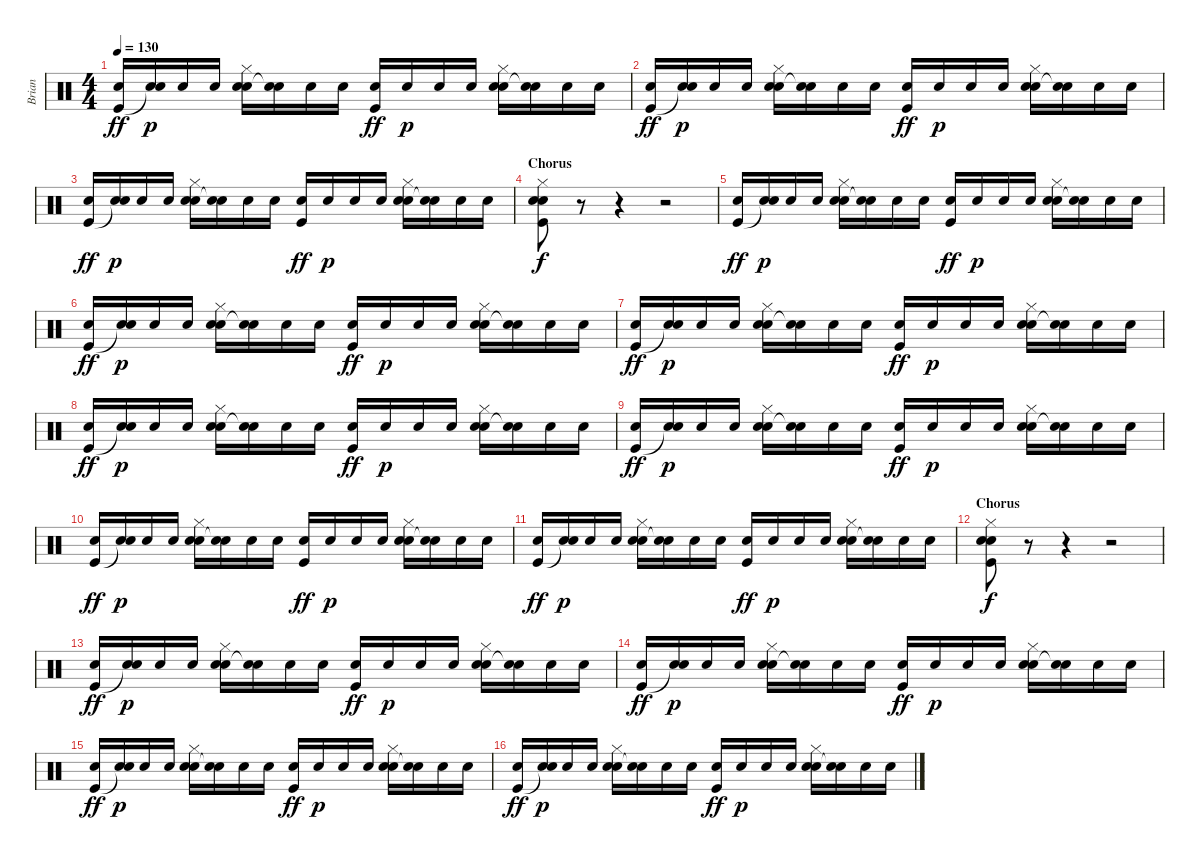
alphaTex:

\track ("Brian" "Brian") {instrument percussion}
\staff {score}
\articulation defaults
\ts (4 4)
\tempo 130
\clef neutral
\ks c
("Snare (hit) 2" "Kick (hit)").16{dy ff} ("Snare (hit) 2" "Snare (hit)"{t}).16{dy p} "Snare (hit) 2".16 "Snare (hit) 2".16 ("Snare (hit) 2" "Hi-Hat (closed)" "Snare (hit) 2").16 ("Snare (hit)"{t} "Snare (hit) 2").16 "Snare (hit) 2".16 "Snare (hit) 2".16 ("Snare (hit) 2" "Kick (hit)").16{dy ff} "Snare (hit) 2".16{dy p} "Snare (hit) 2".16 "Snare (hit) 2".16 ("Snare (hit) 2" "Hi-Hat (closed)" "Snare (hit) 2").16 ("Snare (hit)"{t} "Snare (hit) 2").16 "Snare (hit) 2".16 "Snare (hit) 2".16 |
("Snare (hit) 2" "Kick (hit)").16{dy ff} ("Snare (hit) 2" "Snare (hit)"{t}).16{dy p} "Snare (hit) 2".16 "Snare (hit) 2".16 ("Snare (hit) 2" "Hi-Hat (closed)" "Snare (hit) 2").16 ("Snare (hit)"{t} "Snare (hit) 2").16 "Snare (hit) 2".16 "Snare (hit) 2".16 ("Snare (hit) 2" "Kick (hit)").16{dy ff} "Snare (hit) 2".16{dy p} "Snare (hit) 2".16 "Snare (hit) 2".16 ("Snare (hit) 2" "Hi-Hat (closed)" "Snare (hit) 2").16 ("Snare (hit)"{t} "Snare (hit) 2").16 "Snare (hit) 2".16 "Snare (hit) 2".16 |
("Snare (hit) 2" "Kick (hit)").16{dy ff} ("Snare (hit) 2" "Snare (hit)"{t}).16{dy p} "Snare (hit) 2".16 "Snare (hit) 2".16 ("Snare (hit) 2" "Hi-Hat (closed)" "Snare (hit) 2").16 ("Snare (hit)"{t} "Snare (hit) 2").16 "Snare (hit) 2".16 "Snare (hit) 2".16 ("Snare (hit) 2" "Kick (hit)").16{dy ff} "Snare (hit) 2".16{dy p} "Snare (hit) 2".16 "Snare (hit) 2".16 ("Snare (hit) 2" "Hi-Hat (closed)" "Snare (hit) 2").16 ("Snare (hit)"{t} "Snare (hit) 2").16 "Snare (hit) 2".16 "Snare (hit) 2".16 |
\section ("" "Chorus")
("Snare (hit) 2" "Hi-Hat (closed)" "Snare (hit) 2" "Kick (hit)").8{dy f} r.8 r.4 r.2 |
("Snare (hit) 2" "Kick (hit)").16{dy ff} ("Snare (hit) 2" "Snare (hit)"{t}).16{dy p} "Snare (hit) 2".16 "Snare (hit) 2".16 ("Snare (hit) 2" "Hi-Hat (closed)" "Snare (hit) 2").16 ("Snare (hit)"{t} "Snare (hit) 2").16 "Snare (hit) 2".16 "Snare (hit) 2".16 ("Snare (hit) 2" "Kick (hit)").16{dy ff} "Snare (hit) 2".16{dy p} "Snare (hit) 2".16 "Snare (hit) 2".16 ("Snare (hit) 2" "Hi-Hat (closed)" "Snare (hit) 2").16 ("Snare (hit)"{t} "Snare (hit) 2").16 "Snare (hit) 2".16 "Snare (hit) 2".16 |
("Snare (hit) 2" "Kick (hit)").16{dy ff} ("Snare (hit) 2" "Snare (hit)"{t}).16{dy p} "Snare (hit) 2".16 "Snare (hit) 2".16 ("Snare (hit) 2" "Hi-Hat (closed)" "Snare (hit) 2").16 ("Snare (hit)"{t} "Snare (hit) 2").16 "Snare (hit) 2".16 "Snare (hit) 2".16 ("Snare (hit) 2" "Kick (hit)").16{dy ff} "Snare (hit) 2".16{dy p} "Snare (hit) 2".16 "Snare (hit) 2".16 ("Snare (hit) 2" "Hi-Hat (closed)" "Snare (hit) 2").16 ("Snare (hit)"{t} "Snare (hit) 2").16 "Snare (hit) 2".16 "Snare (hit) 2".16 |
("Snare (hit) 2" "Kick (hit)").16{dy ff} ("Snare (hit) 2" "Snare (hit)"{t}).16{dy p} "Snare (hit) 2".16 "Snare (hit) 2".16 ("Snare (hit) 2" "Hi-Hat (closed)" "Snare (hit) 2").16 ("Snare (hit)"{t} "Snare (hit) 2").16 "Snare (hit) 2".16 "Snare (hit) 2".16 ("Snare (hit) 2" "Kick (hit)").16{dy ff} "Snare (hit) 2".16{dy p} "Snare (hit) 2".16 "Snare (hit) 2".16 ("Snare (hit) 2" "Hi-Hat (closed)" "Snare (hit) 2").16 ("Snare (hit)"{t} "Snare (hit) 2").16 "Snare (hit) 2".16 "Snare (hit) 2".16 |
("Snare (hit) 2" "Kick (hit)").16{dy ff} ("Snare (hit) 2" "Snare (hit)"{t}).16{dy p} "Snare (hit) 2".16 "Snare (hit) 2".16 ("Snare (hit) 2" "Hi-Hat (closed)" "Snare (hit) 2").16 ("Snare (hit)"{t} "Snare (hit) 2").16 "Snare (hit) 2".16 "Snare (hit) 2".16 ("Snare (hit) 2" "Kick (hit)").16{dy ff} "Snare (hit) 2".16{dy p} "Snare (hit) 2".16 "Snare (hit) 2".16 ("Snare (hit) 2" "Hi-Hat (closed)" "Snare (hit) 2").16 ("Snare (hit)"{t} "Snare (hit) 2").16 "Snare (hit) 2".16 "Snare (hit) 2".16 |
("Snare (hit) 2" "Kick (hit)").16{dy ff} ("Snare (hit) 2" "Snare (hit)"{t}).16{dy p} "Snare (hit) 2".16 "Snare (hit) 2".16 ("Snare (hit) 2" "Hi-Hat (closed)" "Snare (hit) 2").16 ("Snare (hit)"{t} "Snare (hit) 2").16 "Snare (hit) 2".16 "Snare (hit) 2".16 ("Snare (hit) 2" "Kick (hit)").16{dy ff} "Snare (hit) 2".16{dy p} "Snare (hit) 2".16 "Snare (hit) 2".16 ("Snare (hit) 2" "Hi-Hat (closed)" "Snare (hit) 2").16 ("Snare (hit)"{t} "Snare (hit) 2").16 "Snare (hit) 2".16 "Snare (hit) 2".16 |
("Snare (hit) 2" "Kick (hit)").16{dy ff} ("Snare (hit) 2" "Snare (hit)"{t}).16{dy p} "Snare (hit) 2".16 "Snare (hit) 2".16 ("Snare (hit) 2" "Hi-Hat (closed)" "Snare (hit) 2").16 ("Snare (hit)"{t} "Snare (hit) 2").16 "Snare (hit) 2".16 "Snare (hit) 2".16 ("Snare (hit) 2" "Kick (hit)").16{dy ff} "Snare (hit) 2".16{dy p} "Snare (hit) 2".16 "Snare (hit) 2".16 ("Snare (hit) 2" "Hi-Hat (closed)" "Snare (hit) 2").16 ("Snare (hit)"{t} "Snare (hit) 2").16 "Snare (hit) 2".16 "Snare (hit) 2".16 |
("Snare (hit) 2" "Kick (hit)").16{dy ff} ("Snare (hit) 2" "Snare (hit)"{t}).16{dy p} "Snare (hit) 2".16 "Snare (hit) 2".16 ("Snare (hit) 2" "Hi-Hat (closed)" "Snare (hit) 2").16 ("Snare (hit)"{t} "Snare (hit) 2").16 "Snare (hit) 2".16 "Snare (hit) 2".16 ("Snare (hit) 2" "Kick (hit)").16{dy ff} "Snare (hit) 2".16{dy p} "Snare (hit) 2".16 "Snare (hit) 2".16 ("Snare (hit) 2" "Hi-Hat (closed)" "Snare (hit) 2").16 ("Snare (hit)"{t} "Snare (hit) 2").16 "Snare (hit) 2".16 "Snare (hit) 2".16 |
\section ("" "Chorus")
("Snare (hit) 2" "Hi-Hat (closed)" "Snare (hit) 2" "Kick (hit)").8{dy f} r.8 r.4 r.2 |
("Snare (hit) 2" "Kick (hit)").16{dy ff} ("Snare (hit) 2" "Snare (hit)"{t}).16{dy p} "Snare (hit) 2".16 "Snare (hit) 2".16 ("Snare (hit) 2" "Hi-Hat (closed)" "Snare (hit) 2").16 ("Snare (hit)"{t} "Snare (hit) 2").16 "Snare (hit) 2".16 "Snare (hit) 2".16 ("Snare (hit) 2" "Kick (hit)").16{dy ff} "Snare (hit) 2".16{dy p} "Snare (hit) 2".16 "Snare (hit) 2".16 ("Snare (hit) 2" "Hi-Hat (closed)" "Snare (hit) 2").16 ("Snare (hit)"{t} "Snare (hit) 2").16 "Snare (hit) 2".16 "Snare (hit) 2".16 |
("Snare (hit) 2" "Kick (hit)").16{dy ff} ("Snare (hit) 2" "Snare (hit)"{t}).16{dy p} "Snare (hit) 2".16 "Snare (hit) 2".16 ("Snare (hit) 2" "Hi-Hat (closed)" "Snare (hit) 2").16 ("Snare (hit)"{t} "Snare (hit) 2").16 "Snare (hit) 2".16 "Snare (hit) 2".16 ("Snare (hit) 2" "Kick (hit)").16{dy ff} "Snare (hit) 2".16{dy p} "Snare (hit) 2".16 "Snare (hit) 2".16 ("Snare (hit) 2" "Hi-Hat (closed)" "Snare (hit) 2").16 ("Snare (hit)"{t} "Snare (hit) 2").16 "Snare (hit) 2".16 "Snare (hit) 2".16 |
("Snare (hit) 2" "Kick (hit)").16{dy ff} ("Snare (hit) 2" "Snare (hit)"{t}).16{dy p} "Snare (hit) 2".16 "Snare (hit) 2".16 ("Snare (hit) 2" "Hi-Hat (closed)" "Snare (hit) 2").16 ("Snare (hit)"{t} "Snare (hit) 2").16 "Snare (hit) 2".16 "Snare (hit) 2".16 ("Snare (hit) 2" "Kick (hit)").16{dy ff} "Snare (hit) 2".16{dy p} "Snare (hit) 2".16 "Snare (hit) 2".16 ("Snare (hit) 2" "Hi-Hat (closed)" "Snare (hit) 2").16 ("Snare (hit)"{t} "Snare (hit) 2").16 "Snare (hit) 2".16 "Snare (hit) 2".16 |
("Snare (hit) 2" "Kick (hit)").16{dy ff} ("Snare (hit) 2" "Snare (hit)"{t}).16{dy p} "Snare (hit) 2".16 "Snare (hit) 2".16 ("Snare (hit) 2" "Hi-Hat (closed)" "Snare (hit) 2").16 ("Snare (hit)"{t} "Snare (hit) 2").16 "Snare (hit) 2".16 "Snare (hit) 2".16 ("Snare (hit) 2" "Kick (hit)").16{dy ff} "Snare (hit) 2".16{dy p} "Snare (hit) 2".16 "Snare (hit) 2".16 ("Snare (hit) 2" "Hi-Hat (closed)" "Snare (hit) 2").16 ("Snare (hit)"{t} "Snare (hit) 2").16 "Snare (hit) 2".16 "Snare (hit) 2".16
